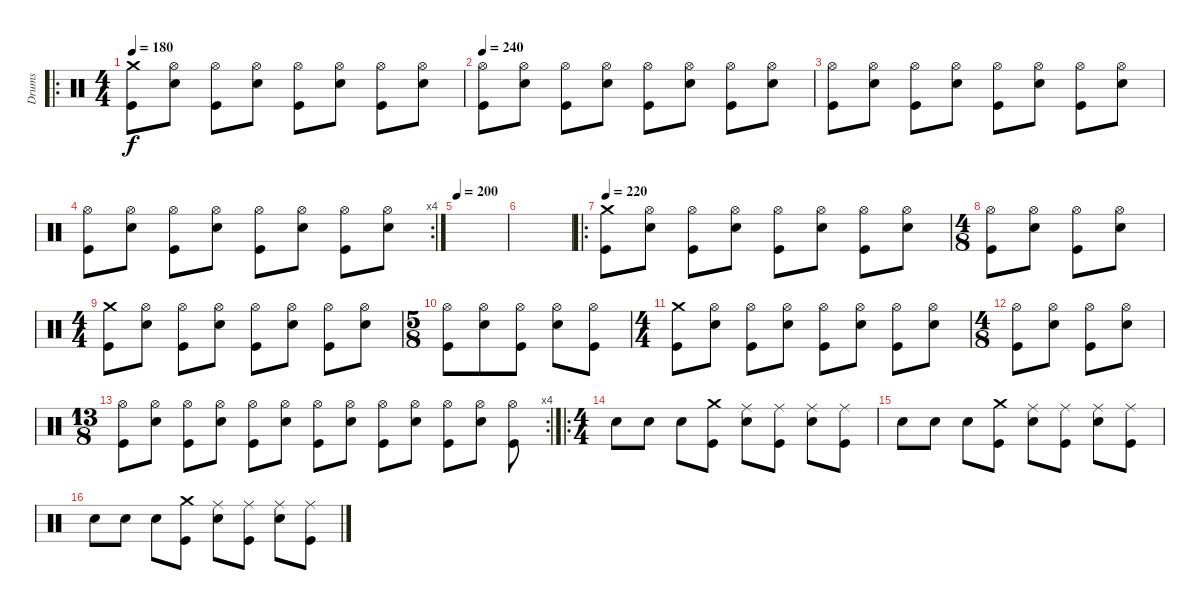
\track ("Drums" "Drums") {instrument percussion}
\staff {score}
\articulation defaults
\ro
\ts (4 4)
\tempo 180
\clef neutral
\ks c
("Crash medium (hit)" "Kick (hit)").8{dy f} ("Hi-Hat (open)" "Electric Snare (hit)").8 ("Hi-Hat (open)" "Kick (hit)").8 ("Hi-Hat (open)" "Electric Snare (hit)").8 ("Hi-Hat (open)" "Kick (hit)").8 ("Hi-Hat (open)" "Electric Snare (hit)").8 ("Hi-Hat (open)" "Kick (hit)").8 ("Hi-Hat (open)" "Electric Snare (hit)").8 |
\tempo 240
("Hi-Hat (open)" "Kick (hit)").8 ("Hi-Hat (open)" "Electric Snare (hit)").8 ("Hi-Hat (open)" "Kick (hit)").8 ("Hi-Hat (open)" "Electric Snare (hit)").8 ("Hi-Hat (open)" "Kick (hit)").8 ("Hi-Hat (open)" "Electric Snare (hit)").8 ("Hi-Hat (open)" "Kick (hit)").8 ("Hi-Hat (open)" "Electric Snare (hit)").8 |
("Hi-Hat (open)" "Kick (hit)").8 ("Hi-Hat (open)" "Electric Snare (hit)").8 ("Hi-Hat (open)" "Kick (hit)").8 ("Hi-Hat (open)" "Electric Snare (hit)").8 ("Hi-Hat (open)" "Kick (hit)").8 ("Hi-Hat (open)" "Electric Snare (hit)").8 ("Hi-Hat (open)" "Kick (hit)").8 ("Hi-Hat (open)" "Electric Snare (hit)").8 |
\rc 4
("Hi-Hat (open)" "Kick (hit)").8 ("Hi-Hat (open)" "Electric Snare (hit)").8 ("Hi-Hat (open)" "Kick (hit)").8 ("Hi-Hat (open)" "Electric Snare (hit)").8 ("Hi-Hat (open)" "Kick (hit)").8 ("Hi-Hat (open)" "Electric Snare (hit)").8 ("Hi-Hat (open)" "Kick (hit)").8 ("Hi-Hat (open)" "Electric Snare (hit)").8 |
\tempo 200
|
|
\ro
\tempo 220
("Crash medium (hit)" "Kick (hit)").8 ("Hi-Hat (open)" "Electric Snare (hit)").8 ("Hi-Hat (open)" "Kick (hit)").8 ("Hi-Hat (open)" "Electric Snare (hit)").8 ("Hi-Hat (open)" "Kick (hit)").8 ("Hi-Hat (open)" "Electric Snare (hit)").8 ("Hi-Hat (open)" "Kick (hit)").8 ("Hi-Hat (open)" "Electric Snare (hit)").8 |
\ts (4 8)
("Hi-Hat (open)" "Kick (hit)").8 ("Hi-Hat (open)" "Electric Snare (hit)").8 ("Hi-Hat (open)" "Kick (hit)").8 ("Hi-Hat (open)" "Electric Snare (hit)").8 |
\ts (4 4)
("Crash medium (hit)" "Kick (hit)").8 ("Hi-Hat (open)" "Electric Snare (hit)").8 ("Hi-Hat (open)" "Kick (hit)").8 ("Hi-Hat (open)" "Electric Snare (hit)").8 ("Hi-Hat (open)" "Kick (hit)").8 ("Hi-Hat (open)" "Electric Snare (hit)").8 ("Hi-Hat (open)" "Kick (hit)").8 ("Hi-Hat (open)" "Electric Snare (hit)").8 |
\ts (5 8)
("Hi-Hat (open)" "Kick (hit)").8 ("Hi-Hat (open)" "Electric Snare (hit)").8 ("Hi-Hat (open)" "Kick (hit)").8 ("Hi-Hat (open)" "Electric Snare (hit)").8 ("Hi-Hat (open)" "Kick (hit)").8 |
\ts (4 4)
("Crash medium (hit)" "Kick (hit)").8 ("Hi-Hat (open)" "Electric Snare (hit)").8 ("Hi-Hat (open)" "Kick (hit)").8 ("Hi-Hat (open)" "Electric Snare (hit)").8 ("Hi-Hat (open)" "Kick (hit)").8 ("Hi-Hat (open)" "Electric Snare (hit)").8 ("Hi-Hat (open)" "Kick (hit)").8 ("Hi-Hat (open)" "Electric Snare (hit)").8 |
\ts (4 8)
("Hi-Hat (open)" "Kick (hit)").8 ("Hi-Hat (open)" "Electric Snare (hit)").8 ("Hi-Hat (open)" "Kick (hit)").8 ("Hi-Hat (open)" "Electric Snare (hit)").8 |
\rc 4
\ts (13 8)
("Hi-Hat (open)" "Kick (hit)").8 ("Hi-Hat (open)" "Electric Snare (hit)").8 ("Hi-Hat (open)" "Kick (hit)").8 ("Hi-Hat (open)" "Electric Snare (hit)").8 ("Hi-Hat (open)" "Kick (hit)").8 ("Hi-Hat (open)" "Electric Snare (hit)").8 ("Hi-Hat (open)" "Kick (hit)").8 ("Hi-Hat (open)" "Electric Snare (hit)").8 ("Hi-Hat (open)" "Kick (hit)").8 ("Hi-Hat (open)" "Electric Snare (hit)").8 ("Hi-Hat (open)" "Kick (hit)").8 ("Hi-Hat (open)" "Electric Snare (hit)").8 ("Hi-Hat (open)" "Kick (hit)").8 |
\ro
\ts (4 4)
"Electric Snare (hit)".8 "Electric Snare (hit)".8 "Electric Snare (hit)".8 ("Crash medium (hit)" "Kick (hit)").8 ("Ride (middle)" "Electric Snare (hit)").8 ("Ride (middle)" "Kick (hit)").8 ("Ride (middle)" "Electric Snare (hit)").8 ("Ride (middle)" "Kick (hit)").8 |
"Electric Snare (hit)".8 "Electric Snare (hit)".8 "Electric Snare (hit)".8 ("Crash medium (hit)" "Kick (hit)").8 ("Ride (middle)" "Electric Snare (hit)").8 ("Ride (middle)" "Kick (hit)").8 ("Ride (middle)" "Electric Snare (hit)").8 ("Ride (middle)" "Kick (hit)").8 |
"Electric Snare (hit)".8 "Electric Snare (hit)".8 "Electric Snare (hit)".8 ("Crash medium (hit)" "Kick (hit)").8 ("Ride (middle)" "Electric Snare (hit)").8 ("Ride (middle)" "Kick (hit)").8 ("Ride (middle)" "Electric Snare (hit)").8 ("Ride (middle)" "Kick (hit)").8
